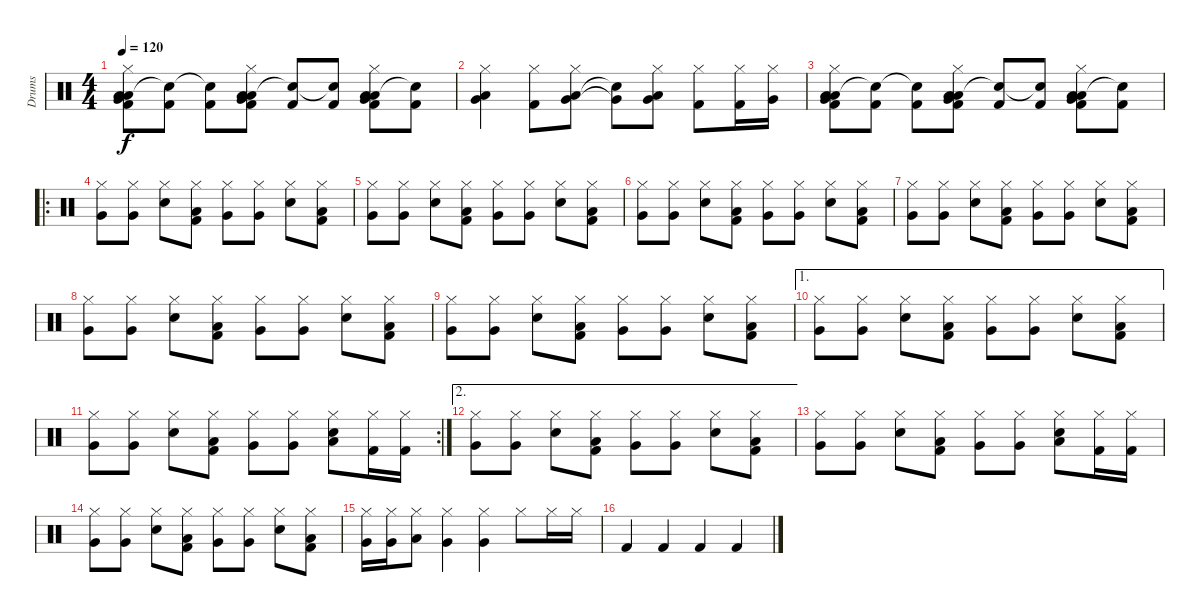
\track ("Drums" "Drums") {instrument percussion}
\staff {score}
\articulation defaults
\ts (4 4)
\tempo 120
\clef neutral
\ks c
("Low Floor Tom (hit)" "Low Tom (hit)" "Kick (hit) 2" "Very Low Tom (hit)" "Hi-Hat (closed)").8{dy f} ("Kick (hit) 2" "Snare (hit)"{t}).8 ("Kick (hit) 2" "Snare (hit)"{t}).8 ("Low Floor Tom (hit)" "Low Tom (hit)" "Kick (hit) 2" "Very Low Tom (hit)" "Hi-Hat (closed)").8 ("Kick (hit) 2" "Snare (hit)"{t}).8 ("Kick (hit) 2" "Snare (hit)"{t}).8 ("Low Floor Tom (hit)" "Low Tom (hit)" "Kick (hit) 2" "Very Low Tom (hit)" "Hi-Hat (closed)").8 ("Kick (hit) 2" "Snare (hit)"{t}).8 |
("Low Floor Tom (hit)" "Very Low Tom (hit)" "Hi-Hat (closed)").4 ("Kick (hit) 2" "Hi-Hat (closed)").8 ("Low Floor Tom (hit)" "Very Low Tom (hit)" "Hi-Hat (closed)").8 ("Snare (hit)"{t} "Very Low Tom (hit)"{t}).8 ("Low Floor Tom (hit)" "Very Low Tom (hit)" "Hi-Hat (closed)").8 ("Kick (hit) 2" "Hi-Hat (closed)").8 ("Kick (hit) 2" "Hi-Hat (closed)").16 ("Very Low Tom (hit)" "Hi-Hat (closed)").16 |
("Low Floor Tom (hit)" "Low Tom (hit)" "Kick (hit) 2" "Very Low Tom (hit)" "Hi-Hat (closed)").8 ("Kick (hit) 2" "Snare (hit)"{t}).8 ("Kick (hit) 2" "Snare (hit)"{t}).8 ("Low Floor Tom (hit)" "Low Tom (hit)" "Kick (hit) 2" "Very Low Tom (hit)" "Hi-Hat (closed)").8 ("Kick (hit) 2" "Snare (hit)"{t}).8 ("Kick (hit) 2" "Snare (hit)"{t}).8 ("Low Floor Tom (hit)" "Low Tom (hit)" "Kick (hit) 2" "Very Low Tom (hit)" "Hi-Hat (closed)").8 ("Kick (hit) 2" "Snare (hit)"{t}).8 |
\ro
("Very Low Tom (hit)" "Hi-Hat (closed)").8 ("Very Low Tom (hit)" "Hi-Hat (closed)").8 ("Snare (hit) 2" "Hi-Hat (closed)").8 ("Low Floor Tom (hit)" "Kick (hit) 2" "Hi-Hat (closed)").8 ("Very Low Tom (hit)" "Hi-Hat (closed)").8 ("Very Low Tom (hit)" "Hi-Hat (closed)").8 ("Snare (hit) 2" "Hi-Hat (closed)").8 ("Low Floor Tom (hit)" "Kick (hit) 2" "Hi-Hat (closed)").8 |
("Very Low Tom (hit)" "Hi-Hat (closed)").8 ("Very Low Tom (hit)" "Hi-Hat (closed)").8 ("Snare (hit) 2" "Hi-Hat (closed)").8 ("Low Floor Tom (hit)" "Kick (hit) 2" "Hi-Hat (closed)").8 ("Very Low Tom (hit)" "Hi-Hat (closed)").8 ("Very Low Tom (hit)" "Hi-Hat (closed)").8 ("Snare (hit) 2" "Hi-Hat (closed)").8 ("Low Floor Tom (hit)" "Kick (hit) 2" "Hi-Hat (closed)").8 |
("Very Low Tom (hit)" "Hi-Hat (closed)").8 ("Very Low Tom (hit)" "Hi-Hat (closed)").8 ("Snare (hit) 2" "Hi-Hat (closed)").8 ("Low Floor Tom (hit)" "Kick (hit) 2" "Hi-Hat (closed)").8 ("Very Low Tom (hit)" "Hi-Hat (closed)").8 ("Very Low Tom (hit)" "Hi-Hat (closed)").8 ("Snare (hit) 2" "Hi-Hat (closed)").8 ("Low Floor Tom (hit)" "Kick (hit) 2" "Hi-Hat (closed)").8 |
("Very Low Tom (hit)" "Hi-Hat (closed)").8 ("Very Low Tom (hit)" "Hi-Hat (closed)").8 ("Snare (hit) 2" "Hi-Hat (closed)").8 ("Low Floor Tom (hit)" "Kick (hit) 2" "Hi-Hat (closed)").8 ("Very Low Tom (hit)" "Hi-Hat (closed)").8 ("Very Low Tom (hit)" "Hi-Hat (closed)").8 ("Snare (hit) 2" "Hi-Hat (closed)").8 ("Low Floor Tom (hit)" "Kick (hit) 2" "Hi-Hat (closed)").8 |
("Very Low Tom (hit)" "Hi-Hat (closed)").8 ("Very Low Tom (hit)" "Hi-Hat (closed)").8 ("Snare (hit) 2" "Hi-Hat (closed)").8 ("Low Floor Tom (hit)" "Kick (hit) 2" "Hi-Hat (closed)").8 ("Very Low Tom (hit)" "Hi-Hat (closed)").8 ("Very Low Tom (hit)" "Hi-Hat (closed)").8 ("Snare (hit) 2" "Hi-Hat (closed)").8 ("Low Floor Tom (hit)" "Kick (hit) 2" "Hi-Hat (closed)").8 |
("Very Low Tom (hit)" "Hi-Hat (closed)").8 ("Very Low Tom (hit)" "Hi-Hat (closed)").8 ("Snare (hit) 2" "Hi-Hat (closed)").8 ("Low Floor Tom (hit)" "Kick (hit) 2" "Hi-Hat (closed)").8 ("Very Low Tom (hit)" "Hi-Hat (closed)").8 ("Very Low Tom (hit)" "Hi-Hat (closed)").8 ("Snare (hit) 2" "Hi-Hat (closed)").8 ("Low Floor Tom (hit)" "Kick (hit) 2" "Hi-Hat (closed)").8 |
\ae 1
("Very Low Tom (hit)" "Hi-Hat (closed)").8 ("Very Low Tom (hit)" "Hi-Hat (closed)").8 ("Snare (hit) 2" "Hi-Hat (closed)").8 ("Low Floor Tom (hit)" "Kick (hit) 2" "Hi-Hat (closed)").8 ("Very Low Tom (hit)" "Hi-Hat (closed)").8 ("Very Low Tom (hit)" "Hi-Hat (closed)").8 ("Snare (hit) 2" "Hi-Hat (closed)").8 ("Low Floor Tom (hit)" "Kick (hit) 2" "Hi-Hat (closed)").8 |
\rc 2
("Very Low Tom (hit)" "Hi-Hat (closed)").8 ("Very Low Tom (hit)" "Hi-Hat (closed)").8 ("Snare (hit) 2" "Hi-Hat (closed)").8 ("Low Floor Tom (hit)" "Kick (hit) 2" "Hi-Hat (closed)").8 ("Very Low Tom (hit)" "Hi-Hat (closed)").8 ("Very Low Tom (hit)" "Hi-Hat (closed)").8 ("Low Floor Tom (hit)" "Snare (hit) 2" "Hi-Hat (closed)").8 ("Kick (hit) 2" "Hi-Hat (closed)").16 ("Kick (hit) 2" "Hi-Hat (closed)").16 |
\ae 2
("Very Low Tom (hit)" "Hi-Hat (closed)").8 ("Very Low Tom (hit)" "Hi-Hat (closed)").8 ("Snare (hit) 2" "Hi-Hat (closed)").8 ("Low Floor Tom (hit)" "Kick (hit) 2" "Hi-Hat (closed)").8 ("Very Low Tom (hit)" "Hi-Hat (closed)").8 ("Very Low Tom (hit)" "Hi-Hat (closed)").8 ("Snare (hit) 2" "Hi-Hat (closed)").8 ("Low Floor Tom (hit)" "Kick (hit) 2" "Hi-Hat (closed)").8 |
("Very Low Tom (hit)" "Hi-Hat (closed)").8 ("Very Low Tom (hit)" "Hi-Hat (closed)").8 ("Snare (hit) 2" "Hi-Hat (closed)").8 ("Low Floor Tom (hit)" "Kick (hit) 2" "Hi-Hat (closed)").8 ("Very Low Tom (hit)" "Hi-Hat (closed)").8 ("Very Low Tom (hit)" "Hi-Hat (closed)").8 ("Low Floor Tom (hit)" "Snare (hit) 2" "Hi-Hat (closed)").8 ("Kick (hit) 2" "Hi-Hat (closed)").16 ("Kick (hit) 2" "Hi-Hat (closed)").16 |
("Very Low Tom (hit)" "Hi-Hat (closed)").8 ("Very Low Tom (hit)" "Hi-Hat (closed)").8 ("Snare (hit) 2" "Hi-Hat (closed)").8 ("Low Floor Tom (hit)" "Kick (hit) 2" "Hi-Hat (closed)").8 ("Very Low Tom (hit)" "Hi-Hat (closed)").8 ("Very Low Tom (hit)" "Hi-Hat (closed)").8 ("Snare (hit) 2" "Hi-Hat (closed)").8 ("Low Floor Tom (hit)" "Kick (hit) 2" "Hi-Hat (closed)").8 |
("Very Low Tom (hit)" "Hi-Hat (closed)").16 ("Very Low Tom (hit)" "Hi-Hat (closed)").16 ("Low Floor Tom (hit)" "Hi-Hat (closed)").8 ("Very Low Tom (hit)" "Hi-Hat (closed)").4 ("Very Low Tom (hit)" "Hi-Hat (closed)").4 "Hi-Hat (closed)".8 "Hi-Hat (closed)".16 "Hi-Hat (closed)".16 |
"Kick (hit) 2".4 "Kick (hit) 2".4 "Kick (hit) 2".4 "Kick (hit) 2".4
